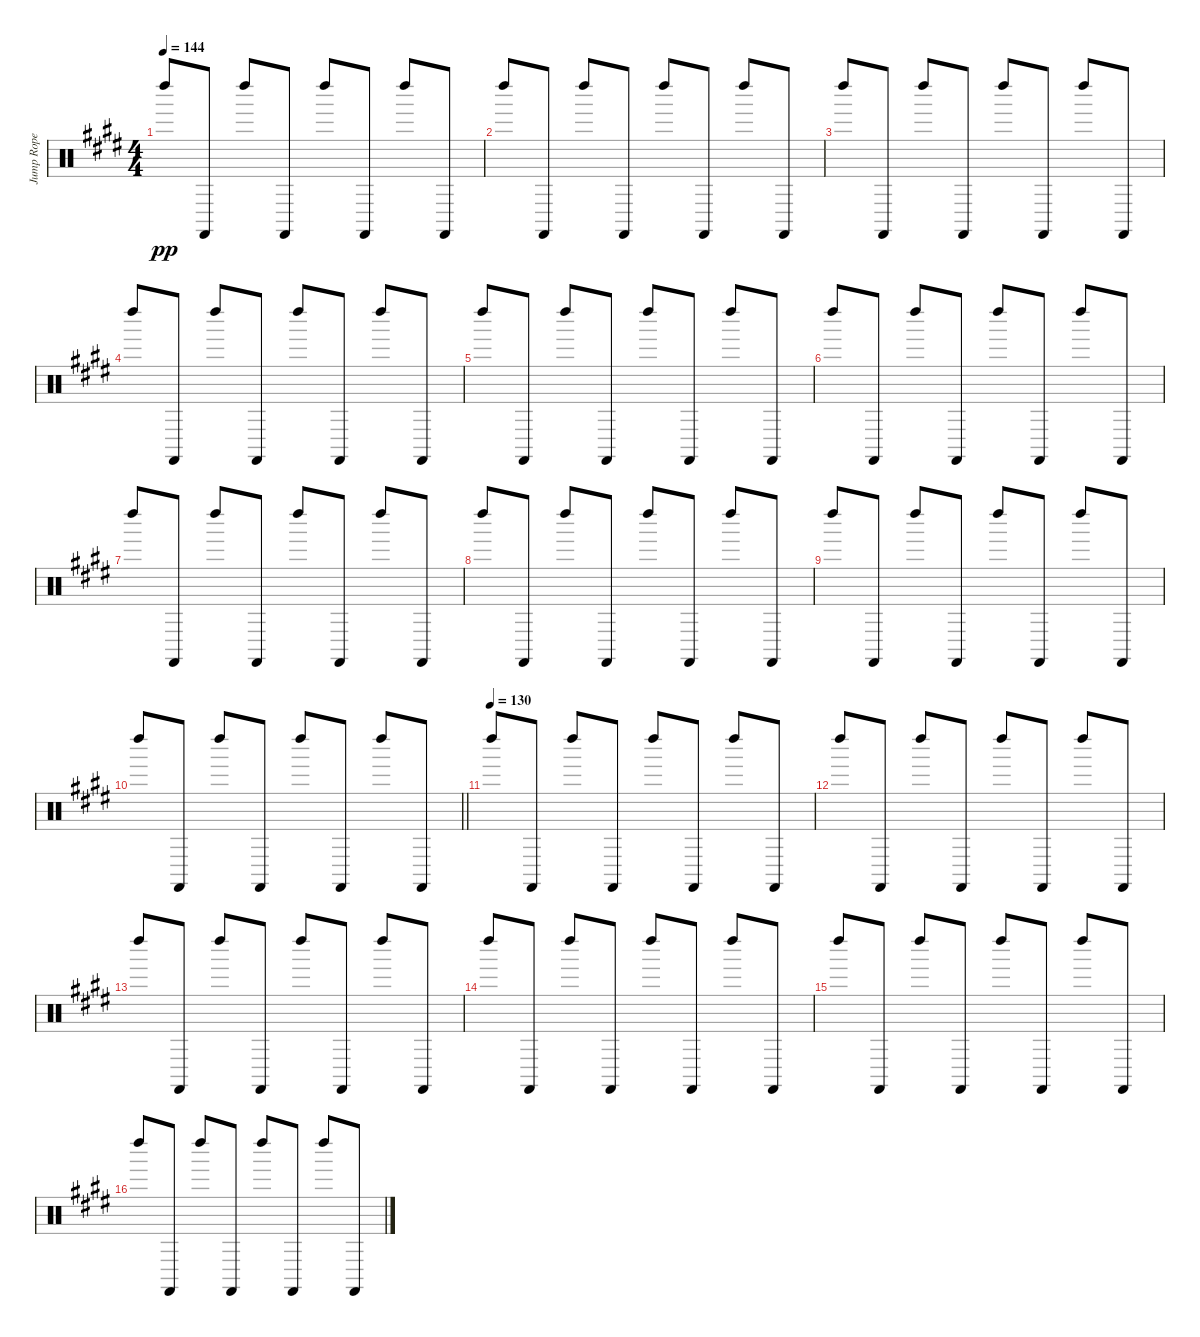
\track ("Jump Rope" "Jump Rope") {instrument percussion}
\staff {score}
\articulation defaults
\ts (4 4)
\tempo 144
\clef neutral
\ks e "Left Maraca (hit)".8{dy pp} "Castanets (hit)".8 "Left Maraca (hit)".8 "Castanets (hit)".8 "Left Maraca (hit)".8 "Castanets (hit)".8 "Left Maraca (hit)".8 "Castanets (hit)".8
|
"Left Maraca (hit)".8 "Castanets (hit)".8 "Left Maraca (hit)".8 "Castanets (hit)".8 "Left Maraca (hit)".8 "Castanets (hit)".8 "Left Maraca (hit)".8 "Castanets (hit)".8 |
"Left Maraca (hit)".8 "Castanets (hit)".8 "Left Maraca (hit)".8 "Castanets (hit)".8 "Left Maraca (hit)".8 "Castanets (hit)".8 "Left Maraca (hit)".8 "Castanets (hit)".8 |
"Left Maraca (hit)".8 "Castanets (hit)".8 "Left Maraca (hit)".8 "Castanets (hit)".8 "Left Maraca (hit)".8 "Castanets (hit)".8 "Left Maraca (hit)".8 "Castanets (hit)".8 |
"Left Maraca (hit)".8 "Castanets (hit)".8 "Left Maraca (hit)".8 "Castanets (hit)".8 "Left Maraca (hit)".8 "Castanets (hit)".8 "Left Maraca (hit)".8 "Castanets (hit)".8 |
"Left Maraca (hit)".8 "Castanets (hit)".8 "Left Maraca (hit)".8 "Castanets (hit)".8 "Left Maraca (hit)".8 "Castanets (hit)".8 "Left Maraca (hit)".8 "Castanets (hit)".8 |
"Left Maraca (hit)".8 "Castanets (hit)".8 "Left Maraca (hit)".8 "Castanets (hit)".8 "Left Maraca (hit)".8 "Castanets (hit)".8 "Left Maraca (hit)".8 "Castanets (hit)".8 |
"Left Maraca (hit)".8 "Castanets (hit)".8 "Left Maraca (hit)".8 "Castanets (hit)".8 "Left Maraca (hit)".8 "Castanets (hit)".8 "Left Maraca (hit)".8 "Castanets (hit)".8 |
"Left Maraca (hit)".8 "Castanets (hit)".8 "Left Maraca (hit)".8 "Castanets (hit)".8 "Left Maraca (hit)".8 "Castanets (hit)".8 "Left Maraca (hit)".8 "Castanets (hit)".8 |
\barLineRight lightlight "Left Maraca (hit)".8 "Castanets (hit)".8 "Left Maraca (hit)".8 "Castanets (hit)".8 "Left Maraca (hit)".8 "Castanets (hit)".8 "Left Maraca (hit)".8 "Castanets (hit)".8
|
\tempo (130)
"Left Maraca (hit)".8 "Castanets (hit)".8 "Left Maraca (hit)".8 "Castanets (hit)".8 "Left Maraca (hit)".8 "Castanets (hit)".8 "Left Maraca (hit)".8 "Castanets (hit)".8 |
"Left Maraca (hit)".8 "Castanets (hit)".8 "Left Maraca (hit)".8 "Castanets (hit)".8 "Left Maraca (hit)".8 "Castanets (hit)".8 "Left Maraca (hit)".8 "Castanets (hit)".8 |
"Left Maraca (hit)".8 "Castanets (hit)".8 "Left Maraca (hit)".8 "Castanets (hit)".8 "Left Maraca (hit)".8 "Castanets (hit)".8 "Left Maraca (hit)".8 "Castanets (hit)".8 |
"Left Maraca (hit)".8 "Castanets (hit)".8 "Left Maraca (hit)".8 "Castanets (hit)".8 "Left Maraca (hit)".8 "Castanets (hit)".8 "Left Maraca (hit)".8 "Castanets (hit)".8 |
"Left Maraca (hit)".8 "Castanets (hit)".8 "Left Maraca (hit)".8 "Castanets (hit)".8 "Left Maraca (hit)".8 "Castanets (hit)".8 "Left Maraca (hit)".8 "Castanets (hit)".8 |
"Left Maraca (hit)".8 "Castanets (hit)".8 "Left Maraca (hit)".8 "Castanets (hit)".8 "Left Maraca (hit)".8 "Castanets (hit)".8 "Left Maraca (hit)".8 "Castanets (hit)".8
